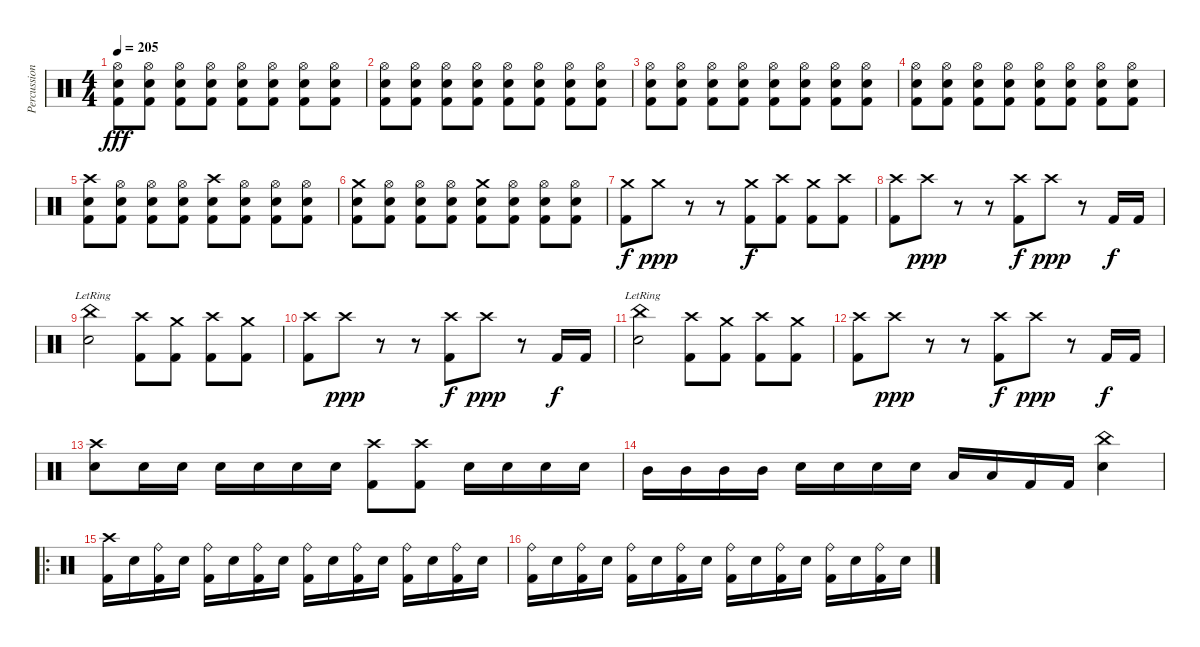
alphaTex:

\track ("Percussion" "Percussion") {instrument percussion}
\staff {score}
\articulation defaults
\ts (4 4)
\tempo 205
\clef neutral
\ks c
("Hi-Hat (open)" "Electric Snare (hit)" "Kick (hit) 2").8{dy fff} ("Hi-Hat (open)" "Electric Snare (hit)" "Kick (hit) 2").8 ("Hi-Hat (open)" "Electric Snare (hit)" "Kick (hit) 2").8 ("Hi-Hat (open)" "Electric Snare (hit)" "Kick (hit) 2").8 ("Hi-Hat (open)" "Electric Snare (hit)" "Kick (hit) 2").8 ("Hi-Hat (open)" "Electric Snare (hit)" "Kick (hit) 2").8 ("Hi-Hat (open)" "Electric Snare (hit)" "Kick (hit) 2").8 ("Hi-Hat (open)" "Electric Snare (hit)" "Kick (hit) 2").8 |
("Hi-Hat (open)" "Electric Snare (hit)" "Kick (hit) 2").8 ("Hi-Hat (open)" "Electric Snare (hit)" "Kick (hit) 2").8 ("Hi-Hat (open)" "Electric Snare (hit)" "Kick (hit) 2").8 ("Hi-Hat (open)" "Electric Snare (hit)" "Kick (hit) 2").8 ("Hi-Hat (open)" "Electric Snare (hit)" "Kick (hit) 2").8 ("Hi-Hat (open)" "Electric Snare (hit)" "Kick (hit) 2").8 ("Hi-Hat (open)" "Electric Snare (hit)" "Kick (hit) 2").8 ("Hi-Hat (open)" "Electric Snare (hit)" "Kick (hit) 2").8 |
("Hi-Hat (open)" "Electric Snare (hit)" "Kick (hit) 2").8 ("Hi-Hat (open)" "Electric Snare (hit)" "Kick (hit) 2").8 ("Hi-Hat (open)" "Electric Snare (hit)" "Kick (hit) 2").8 ("Hi-Hat (open)" "Electric Snare (hit)" "Kick (hit) 2").8 ("Hi-Hat (open)" "Electric Snare (hit)" "Kick (hit) 2").8 ("Hi-Hat (open)" "Electric Snare (hit)" "Kick (hit) 2").8 ("Hi-Hat (open)" "Electric Snare (hit)" "Kick (hit) 2").8 ("Hi-Hat (open)" "Electric Snare (hit)" "Kick (hit) 2").8 |
("Hi-Hat (open)" "Electric Snare (hit)" "Kick (hit) 2").8 ("Hi-Hat (open)" "Electric Snare (hit)" "Kick (hit) 2").8 ("Hi-Hat (open)" "Electric Snare (hit)" "Kick (hit) 2").8 ("Hi-Hat (open)" "Electric Snare (hit)" "Kick (hit) 2").8 ("Hi-Hat (open)" "Electric Snare (hit)" "Kick (hit) 2").8 ("Hi-Hat (open)" "Electric Snare (hit)" "Kick (hit) 2").8 ("Hi-Hat (open)" "Electric Snare (hit)" "Kick (hit) 2").8 ("Hi-Hat (open)" "Electric Snare (hit)" "Kick (hit) 2").8 |
("Crash high (hit)" "Electric Snare (hit)" "Kick (hit) 2").8 ("Hi-Hat (open)" "Electric Snare (hit)" "Kick (hit) 2").8 ("Hi-Hat (open)" "Electric Snare (hit)" "Kick (hit) 2").8 ("Hi-Hat (open)" "Electric Snare (hit)" "Kick (hit) 2").8 ("Crash high (hit)" "Electric Snare (hit)" "Kick (hit) 2").8 ("Hi-Hat (open)" "Electric Snare (hit)" "Kick (hit) 2").8 ("Hi-Hat (open)" "Electric Snare (hit)" "Kick (hit) 2").8 ("Hi-Hat (open)" "Electric Snare (hit)" "Kick (hit) 2").8 |
("Crash medium (hit)" "Electric Snare (hit)" "Kick (hit) 2").8 ("Hi-Hat (open)" "Electric Snare (hit)" "Kick (hit) 2").8 ("Hi-Hat (open)" "Electric Snare (hit)" "Kick (hit) 2").8 ("Hi-Hat (open)" "Electric Snare (hit)" "Kick (hit) 2").8 ("Crash medium (hit)" "Electric Snare (hit)" "Kick (hit) 2").8 ("Hi-Hat (open)" "Electric Snare (hit)" "Kick (hit) 2").8 ("Hi-Hat (open)" "Electric Snare (hit)" "Kick (hit) 2").8 ("Hi-Hat (open)" "Electric Snare (hit)" "Kick (hit) 2").8 |
("Crash medium (hit)" "Kick (hit) 2").8{dy f} "Crash medium (hit)".8{dy ppp} r.8 r.8 ("Crash medium (hit)" "Kick (hit) 2").8{dy f} ("Crash high (hit)" "Kick (hit) 2").8 ("Crash medium (hit)" "Kick (hit) 2").8 ("Crash high (hit)" "Kick (hit) 2").8 |
("Crash high (hit)" "Kick (hit) 2").8 "Crash high (hit)".8{dy ppp} r.8 r.8 ("Crash high (hit)" "Kick (hit) 2").8{dy f} "Crash high (hit)".8{dy ppp} r.8 "Kick (hit) 2".16{dy f} "Kick (hit) 2".16 |
("China (hit)"{lr} "Electric Snare (hit)").2 ("Crash high (hit)" "Kick (hit) 2").8 ("Crash medium (hit)" "Kick (hit) 2").8 ("Crash high (hit)" "Kick (hit) 2").8 ("Crash medium (hit)" "Kick (hit) 2").8 |
("Crash high (hit)" "Kick (hit) 2").8 "Crash high (hit)".8{dy ppp} r.8 r.8 ("Crash high (hit)" "Kick (hit) 2").8{dy f} "Crash high (hit)".8{dy ppp} r.8 "Kick (hit) 2".16{dy f} "Kick (hit) 2".16 |
("China (hit)"{lr} "Electric Snare (hit)").2 ("Crash high (hit)" "Kick (hit) 2").8 ("Crash medium (hit)" "Kick (hit) 2").8 ("Crash high (hit)" "Kick (hit) 2").8 ("Crash medium (hit)" "Kick (hit) 2").8 |
("Crash high (hit)" "Kick (hit) 2").8 "Crash high (hit)".8{dy ppp} r.8 r.8 ("Crash high (hit)" "Kick (hit) 2").8{dy f} "Crash high (hit)".8{dy ppp} r.8 "Kick (hit) 2".16{dy f} "Kick (hit) 2".16 |
("Crash high (hit)" "Electric Snare (hit)").8 "Electric Snare (hit)".16 "Electric Snare (hit)".16 "Electric Snare (hit)".16 "Electric Snare (hit)".16 "Electric Snare (hit)".16 "Electric Snare (hit)".16 ("Crash high (hit)" "Kick (hit) 2").8 ("Crash high (hit)" "Kick (hit) 2").8 "Electric Snare (hit)".16 "Electric Snare (hit)".16 "Electric Snare (hit)".16 "Electric Snare (hit)".16 |
"Mid Tom (hit)".16 "Mid Tom (hit)".16 "Mid Tom (hit)".16 "Mid Tom (hit)".16 "Electric Snare (hit)".16 "Electric Snare (hit)".16 "Electric Snare (hit)".16 "Electric Snare (hit)".16 "Low Tom (hit)".16 "Low Tom (hit)".16 "Kick (hit) 2".16 "Kick (hit) 2".16 ("China (hit)" "Electric Snare (hit)").4 |
\ro
("Crash high (hit)" "Kick (hit) 2").16 "Electric Snare (hit)".16 ("Ride (bell)" "Kick (hit) 2").16 "Electric Snare (hit)".16 ("Ride (bell)" "Kick (hit) 2").16 "Electric Snare (hit)".16 ("Ride (bell)" "Kick (hit) 2").16 "Electric Snare (hit)".16 ("Ride (bell)" "Kick (hit) 2").16 "Electric Snare (hit)".16 ("Ride (bell)" "Kick (hit) 2").16 "Electric Snare (hit)".16 ("Ride (bell)" "Kick (hit) 2").16 "Electric Snare (hit)".16 ("Ride (bell)" "Kick (hit) 2").16 "Electric Snare (hit)".16 |
("Ride (bell)" "Kick (hit) 2").16 "Electric Snare (hit)".16 ("Ride (bell)" "Kick (hit) 2").16 "Electric Snare (hit)".16 ("Ride (bell)" "Kick (hit) 2").16 "Electric Snare (hit)".16 ("Ride (bell)" "Kick (hit) 2").16 "Electric Snare (hit)".16 ("Ride (bell)" "Kick (hit) 2").16 "Electric Snare (hit)".16 ("Ride (bell)" "Kick (hit) 2").16 "Electric Snare (hit)".16 ("Ride (bell)" "Kick (hit) 2").16 "Electric Snare (hit)".16 ("Ride (bell)" "Kick (hit) 2").16 "Electric Snare (hit)".16
